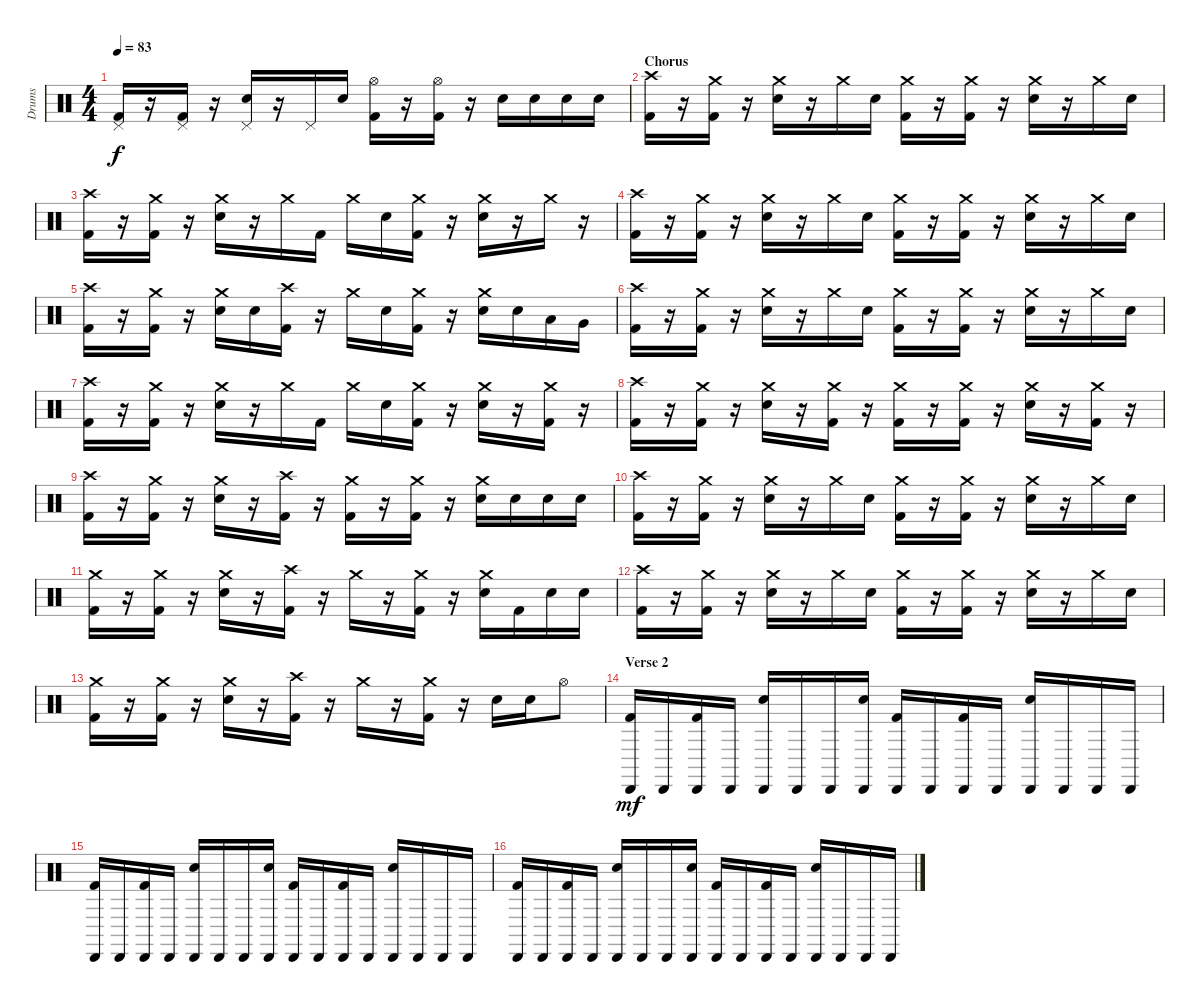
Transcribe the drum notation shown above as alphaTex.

\track ("Drums" "Drums") {instrument percussion}
\staff {score}
\articulation defaults
\ts (4 4)
\tempo 83
\clef neutral
\ks c
("Pedal Hi-Hat (hit)" "Kick (hit) 2").16{dy f} r.16 ("Pedal Hi-Hat (hit)" "Kick (hit) 2").16 r.16 ("Pedal Hi-Hat (hit)" "Electric Snare (hit)").16 r.16 "Pedal Hi-Hat (hit)".16 "Electric Snare (hit)".16 ("Hi-Hat (open)" "Kick (hit) 2").16 r.16 ("Hi-Hat (open)" "Kick (hit) 2").16 r.16 "Electric Snare (hit)".16 "Electric Snare (hit)".16 "Electric Snare (hit)".16 "Electric Snare (hit)".16 |
\section ("" "Chorus")
("Crash high (hit)" "Kick (hit) 2").16 r.16 ("Crash medium (hit)" "Kick (hit) 2").16 r.16 ("Crash medium (hit)" "Electric Snare (hit)").16 r.16 "Crash medium (hit)".16 "Electric Snare (hit)".16 ("Crash medium (hit)" "Kick (hit) 2").16 r.16 ("Crash medium (hit)" "Kick (hit) 2").16 r.16 ("Crash medium (hit)" "Electric Snare (hit)").16 r.16 "Crash medium (hit)".16 "Electric Snare (hit)".16 |
("Crash high (hit)" "Kick (hit) 2").16 r.16 ("Crash medium (hit)" "Kick (hit) 2").16 r.16 ("Crash medium (hit)" "Electric Snare (hit)").16 r.16 "Crash medium (hit)".16 "Kick (hit) 2".16 "Crash medium (hit)".16 "Electric Snare (hit)".16 ("Crash medium (hit)" "Kick (hit) 2").16 r.16 ("Crash medium (hit)" "Electric Snare (hit)").16 r.16 "Crash medium (hit)".16 r.16 |
("Crash high (hit)" "Kick (hit) 2").16 r.16 ("Crash medium (hit)" "Kick (hit) 2").16 r.16 ("Crash medium (hit)" "Electric Snare (hit)").16 r.16 "Crash medium (hit)".16 "Electric Snare (hit)".16 ("Crash medium (hit)" "Kick (hit) 2").16 r.16 ("Crash medium (hit)" "Kick (hit) 2").16 r.16 ("Crash medium (hit)" "Electric Snare (hit)").16 r.16 "Crash medium (hit)".16 "Electric Snare (hit)".16 |
("Crash high (hit)" "Kick (hit) 2").16 r.16 ("Crash medium (hit)" "Kick (hit) 2").16 r.16 ("Crash medium (hit)" "Electric Snare (hit)").16 "Electric Snare (hit)".16 ("Crash high (hit)" "Kick (hit) 2").16 r.16 "Crash medium (hit)".16 "Electric Snare (hit)".16 ("Crash medium (hit)" "Kick (hit) 2").16 r.16 ("Crash medium (hit)" "Electric Snare (hit)").16 "Electric Snare (hit)".16 "Low Tom (hit)".16 "Very Low Tom (hit)".16 |
("Crash high (hit)" "Kick (hit) 2").16 r.16 ("Crash medium (hit)" "Kick (hit) 2").16 r.16 ("Crash medium (hit)" "Electric Snare (hit)").16 r.16 "Crash medium (hit)".16 "Electric Snare (hit)".16 ("Crash medium (hit)" "Kick (hit) 2").16 r.16 ("Crash medium (hit)" "Kick (hit) 2").16 r.16 ("Crash medium (hit)" "Electric Snare (hit)").16 r.16 "Crash medium (hit)".16 "Electric Snare (hit)".16 |
("Crash high (hit)" "Kick (hit) 2").16 r.16 ("Crash medium (hit)" "Kick (hit) 2").16 r.16 ("Crash medium (hit)" "Electric Snare (hit)").16 r.16 "Crash medium (hit)".16 "Kick (hit) 2".16 "Crash medium (hit)".16 "Electric Snare (hit)".16 ("Crash medium (hit)" "Kick (hit) 2").16 r.16 ("Crash medium (hit)" "Electric Snare (hit)").16 r.16 ("Crash medium (hit)" "Kick (hit) 2").16 r.16 |
("Crash high (hit)" "Kick (hit) 2").16 r.16 ("Crash medium (hit)" "Kick (hit) 2").16 r.16 ("Crash medium (hit)" "Electric Snare (hit)").16 r.16 ("Crash medium (hit)" "Kick (hit) 2").16 r.16 ("Crash medium (hit)" "Kick (hit) 2").16 r.16 ("Crash medium (hit)" "Kick (hit) 2").16 r.16 ("Crash medium (hit)" "Electric Snare (hit)").16 r.16 ("Crash medium (hit)" "Kick (hit) 2").16 r.16 |
("Crash high (hit)" "Kick (hit) 2").16 r.16 ("Crash medium (hit)" "Kick (hit) 2").16 r.16 ("Crash medium (hit)" "Electric Snare (hit)").16 r.16 ("Crash high (hit)" "Kick (hit) 2").16 r.16 ("Crash medium (hit)" "Kick (hit) 2").16 r.16 ("Crash medium (hit)" "Kick (hit) 2").16 r.16 ("Crash medium (hit)" "Electric Snare (hit)").16 "Electric Snare (hit)".16 "Electric Snare (hit)".16 "Electric Snare (hit)".16 |
("Crash high (hit)" "Kick (hit) 2").16 r.16 ("Crash medium (hit)" "Kick (hit) 2").16 r.16 ("Crash medium (hit)" "Electric Snare (hit)").16 r.16 "Crash medium (hit)".16 "Electric Snare (hit)".16 ("Crash medium (hit)" "Kick (hit) 2").16 r.16 ("Crash medium (hit)" "Kick (hit) 2").16 r.16 ("Crash medium (hit)" "Electric Snare (hit)").16 r.16 "Crash medium (hit)".16 "Electric Snare (hit)".16 |
("Crash medium (hit)" "Kick (hit) 2").16 r.16 ("Crash medium (hit)" "Kick (hit) 2").16 r.16 ("Crash medium (hit)" "Electric Snare (hit)").16 r.16 ("Crash high (hit)" "Kick (hit) 2").16 r.16 "Crash medium (hit)".16 r.16 ("Crash medium (hit)" "Kick (hit) 2").16 r.16 ("Crash medium (hit)" "Electric Snare (hit)").16 "Kick (hit) 2".16 "Electric Snare (hit)".16 "Electric Snare (hit)".16 |
("Crash high (hit)" "Kick (hit) 2").16 r.16 ("Crash medium (hit)" "Kick (hit) 2").16 r.16 ("Crash medium (hit)" "Electric Snare (hit)").16 r.16 "Crash medium (hit)".16 "Electric Snare (hit)".16 ("Crash medium (hit)" "Kick (hit) 2").16 r.16 ("Crash medium (hit)" "Kick (hit) 2").16 r.16 ("Crash medium (hit)" "Electric Snare (hit)").16 r.16 "Crash medium (hit)".16 "Electric Snare (hit)".16 |
("Crash medium (hit)" "Kick (hit) 2").16 r.16 ("Crash medium (hit)" "Kick (hit) 2").16 r.16 ("Crash medium (hit)" "Electric Snare (hit)").16 r.16 ("Crash high (hit)" "Kick (hit) 2").16 r.16 "Crash medium (hit)".16 r.16 ("Crash medium (hit)" "Kick (hit) 2").16 r.16 "Electric Snare (hit)".16 "Electric Snare (hit)".16 "Hi-Hat (open)".8 |
\section ("" "Verse 2")
("Cabasa (hit)" "Kick (hit) 2").16{dy mf} "Cabasa (hit)".16 ("Cabasa (hit)" "Kick (hit) 2").16 "Cabasa (hit)".16 ("Cabasa (hit)" "Electric Snare (hit)").16 "Cabasa (hit)".16 "Cabasa (hit)".16 ("Cabasa (hit)" "Electric Snare (hit)").16 ("Cabasa (hit)" "Kick (hit) 2").16 "Cabasa (hit)".16 ("Cabasa (hit)" "Kick (hit) 2").16 "Cabasa (hit)".16 ("Cabasa (hit)" "Electric Snare (hit)").16 "Cabasa (hit)".16 "Cabasa (hit)".16 "Cabasa (hit)".16 |
("Cabasa (hit)" "Kick (hit) 2").16 "Cabasa (hit)".16 ("Cabasa (hit)" "Kick (hit) 2").16 "Cabasa (hit)".16 ("Cabasa (hit)" "Electric Snare (hit)").16 "Cabasa (hit)".16 "Cabasa (hit)".16 ("Cabasa (hit)" "Electric Snare (hit)").16 ("Cabasa (hit)" "Kick (hit) 2").16 "Cabasa (hit)".16 ("Cabasa (hit)" "Kick (hit) 2").16 "Cabasa (hit)".16 ("Cabasa (hit)" "Electric Snare (hit)").16 "Cabasa (hit)".16 "Cabasa (hit)".16 "Cabasa (hit)".16 |
("Cabasa (hit)" "Kick (hit) 2").16 "Cabasa (hit)".16 ("Cabasa (hit)" "Kick (hit) 2").16 "Cabasa (hit)".16 ("Cabasa (hit)" "Electric Snare (hit)").16 "Cabasa (hit)".16 "Cabasa (hit)".16 ("Cabasa (hit)" "Electric Snare (hit)").16 ("Cabasa (hit)" "Kick (hit) 2").16 "Cabasa (hit)".16 ("Cabasa (hit)" "Kick (hit) 2").16 "Cabasa (hit)".16 ("Cabasa (hit)" "Electric Snare (hit)").16 "Cabasa (hit)".16 "Cabasa (hit)".16 "Cabasa (hit)".16
